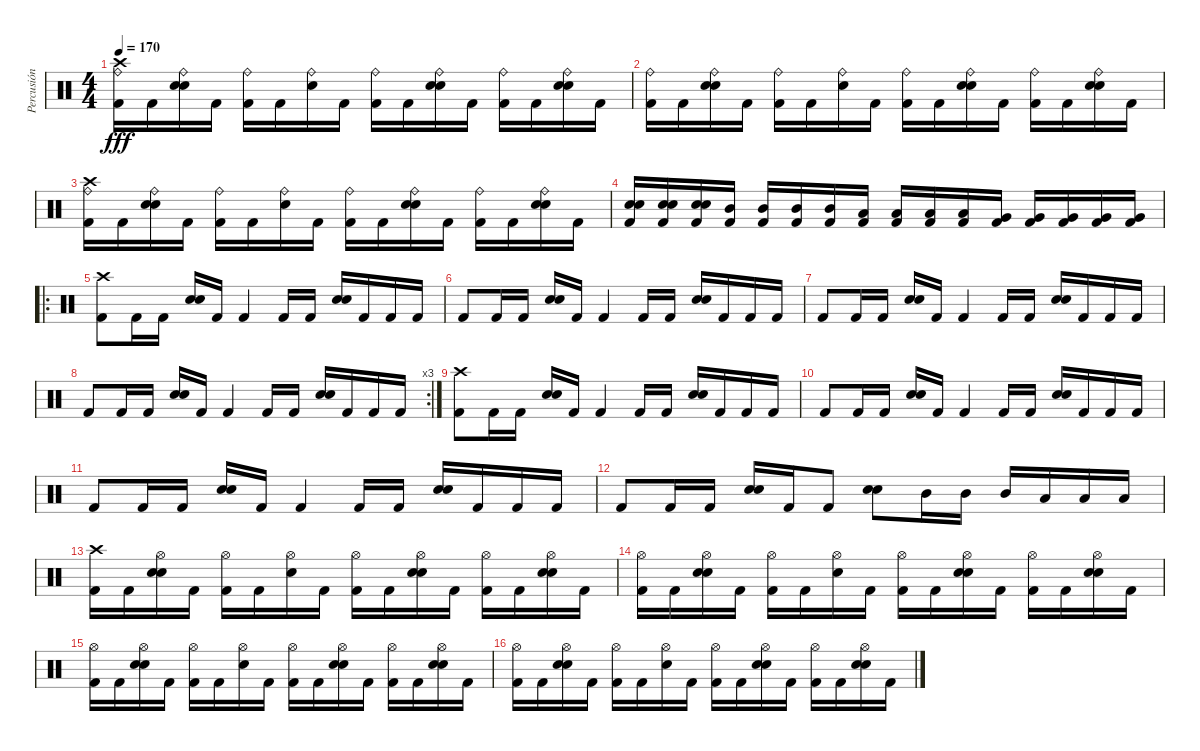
\track ("Percusión" "Percusión") {instrument percussion}
\staff {score}
\articulation defaults
\ts (4 4)
\tempo 170
\clef neutral
\ks c
("Kick (hit) 2" "Ride (bell)" "Crash high (hit)").16{dy fff} "Kick (hit) 2".16 ("Snare (hit) 2" "Electric Snare (hit)" "Ride (bell)").16 "Kick (hit) 2".16 ("Kick (hit) 2" "Ride (bell)").16 "Kick (hit) 2".16 ("Snare (hit) 2" "Ride (bell)").16 "Kick (hit) 2".16 ("Kick (hit) 2" "Ride (bell)").16 "Kick (hit) 2".16 ("Snare (hit) 2" "Electric Snare (hit)" "Ride (bell)").16 "Kick (hit) 2".16 ("Kick (hit) 2" "Ride (bell)").16 "Kick (hit) 2".16 ("Snare (hit) 2" "Electric Snare (hit)" "Ride (bell)").16 "Kick (hit) 2".16 |
("Kick (hit) 2" "Ride (bell)").16 "Kick (hit) 2".16 ("Snare (hit) 2" "Electric Snare (hit)" "Ride (bell)").16 "Kick (hit) 2".16 ("Kick (hit) 2" "Ride (bell)").16 "Kick (hit) 2".16 ("Snare (hit) 2" "Ride (bell)").16 "Kick (hit) 2".16 ("Kick (hit) 2" "Ride (bell)").16 "Kick (hit) 2".16 ("Snare (hit) 2" "Electric Snare (hit)" "Ride (bell)").16 "Kick (hit) 2".16 ("Kick (hit) 2" "Ride (bell)").16 "Kick (hit) 2".16 ("Snare (hit) 2" "Electric Snare (hit)" "Ride (bell)").16 "Kick (hit) 2".16 |
("Kick (hit) 2" "Ride (bell)" "Crash high (hit)").16 "Kick (hit) 2".16 ("Snare (hit) 2" "Electric Snare (hit)" "Ride (bell)").16 "Kick (hit) 2".16 ("Kick (hit) 2" "Ride (bell)").16 "Kick (hit) 2".16 ("Snare (hit) 2" "Ride (bell)").16 "Kick (hit) 2".16 ("Kick (hit) 2" "Ride (bell)").16 "Kick (hit) 2".16 ("Snare (hit) 2" "Electric Snare (hit)" "Ride (bell)").16 "Kick (hit) 2".16 ("Kick (hit) 2" "Ride (bell)").16 "Kick (hit) 2".16 ("Snare (hit) 2" "Electric Snare (hit)" "Ride (bell)").16 "Kick (hit) 2".16 |
("Snare (hit) 2" "Electric Snare (hit)" "Kick (hit) 2").16 ("Snare (hit) 2" "Electric Snare (hit)" "Kick (hit) 2").16 ("Snare (hit) 2" "Electric Snare (hit)" "Kick (hit) 2").16 ("Mid Tom (hit)" "Kick (hit) 2").16 ("Mid Tom (hit)" "Kick (hit) 2").16 ("Mid Tom (hit)" "Kick (hit) 2").16 ("Mid Tom (hit)" "Kick (hit) 2").16 ("Low Tom (hit)" "Kick (hit) 2").16 ("Low Tom (hit)" "Kick (hit) 2").16 ("Low Tom (hit)" "Kick (hit) 2").16 ("Low Tom (hit)" "Kick (hit) 2").16 ("Very Low Tom (hit)" "Kick (hit) 2").16 ("Very Low Tom (hit)" "Kick (hit) 2").16 ("Very Low Tom (hit)" "Kick (hit) 2").16 ("Very Low Tom (hit)" "Kick (hit) 2").16 ("Very Low Tom (hit)" "Kick (hit) 2").16 |
\ro
("Kick (hit) 2" "Crash high (hit)").8 "Kick (hit) 2".16 "Kick (hit) 2".16 ("Snare (hit) 2" "Electric Snare (hit)").16 "Kick (hit) 2".16 "Kick (hit) 2".4 "Kick (hit) 2".16 "Kick (hit) 2".16 ("Snare (hit) 2" "Electric Snare (hit)").16 "Kick (hit) 2".16 "Kick (hit) 2".16 "Kick (hit) 2".16 |
"Kick (hit) 2".8 "Kick (hit) 2".16 "Kick (hit) 2".16 ("Snare (hit) 2" "Electric Snare (hit)").16 "Kick (hit) 2".16 "Kick (hit) 2".4 "Kick (hit) 2".16 "Kick (hit) 2".16 ("Snare (hit) 2" "Electric Snare (hit)").16 "Kick (hit) 2".16 "Kick (hit) 2".16 "Kick (hit) 2".16 |
"Kick (hit) 2".8 "Kick (hit) 2".16 "Kick (hit) 2".16 ("Snare (hit) 2" "Electric Snare (hit)").16 "Kick (hit) 2".16 "Kick (hit) 2".4 "Kick (hit) 2".16 "Kick (hit) 2".16 ("Snare (hit) 2" "Electric Snare (hit)").16 "Kick (hit) 2".16 "Kick (hit) 2".16 "Kick (hit) 2".16 |
\rc 3 "Kick (hit) 2".8 "Kick (hit) 2".16 "Kick (hit) 2".16
("Snare (hit) 2" "Electric Snare (hit)").16 "Kick (hit) 2".16 "Kick (hit) 2".4 "Kick (hit) 2".16 "Kick (hit) 2".16 ("Snare (hit) 2" "Electric Snare (hit)").16 "Kick (hit) 2".16 "Kick (hit) 2".16 "Kick (hit) 2".16 |
("Kick (hit) 2" "Crash high (hit)").8 "Kick (hit) 2".16 "Kick (hit) 2".16 ("Snare (hit) 2" "Electric Snare (hit)").16 "Kick (hit) 2".16 "Kick (hit) 2".4 "Kick (hit) 2".16 "Kick (hit) 2".16 ("Snare (hit) 2" "Electric Snare (hit)").16 "Kick (hit) 2".16 "Kick (hit) 2".16 "Kick (hit) 2".16 |
"Kick (hit) 2".8 "Kick (hit) 2".16 "Kick (hit) 2".16 ("Snare (hit) 2" "Electric Snare (hit)").16 "Kick (hit) 2".16 "Kick (hit) 2".4 "Kick (hit) 2".16 "Kick (hit) 2".16 ("Snare (hit) 2" "Electric Snare (hit)").16 "Kick (hit) 2".16 "Kick (hit) 2".16 "Kick (hit) 2".16 |
"Kick (hit) 2".8 "Kick (hit) 2".16 "Kick (hit) 2".16 ("Snare (hit) 2" "Electric Snare (hit)").16 "Kick (hit) 2".16 "Kick (hit) 2".4 "Kick (hit) 2".16 "Kick (hit) 2".16 ("Snare (hit) 2" "Electric Snare (hit)").16 "Kick (hit) 2".16 "Kick (hit) 2".16 "Kick (hit) 2".16 |
"Kick (hit) 2".8 "Kick (hit) 2".16 "Kick (hit) 2".16 ("Snare (hit) 2" "Electric Snare (hit)").16 "Kick (hit) 2".16 "Kick (hit) 2".8 ("Snare (hit) 2" "Electric Snare (hit)").8 "Mid Tom (hit)".16 "Mid Tom (hit)".16 "Mid Tom (hit)".16 "Low Tom (hit)".16 "Low Tom (hit)".16 "Low Tom (hit)".16 |
("Kick (hit) 2" "Crash high (hit)").16 "Kick (hit) 2".16 ("Snare (hit) 2" "Electric Snare (hit)" "Hi-Hat (open)").16 "Kick (hit) 2".16 ("Kick (hit) 2" "Hi-Hat (open)").16 "Kick (hit) 2".16 ("Snare (hit) 2" "Hi-Hat (open)").16 "Kick (hit) 2".16 ("Kick (hit) 2" "Hi-Hat (open)").16 "Kick (hit) 2".16 ("Snare (hit) 2" "Electric Snare (hit)" "Hi-Hat (open)").16 "Kick (hit) 2".16 ("Kick (hit) 2" "Hi-Hat (open)").16 "Kick (hit) 2".16 ("Snare (hit) 2" "Electric Snare (hit)" "Hi-Hat (open)").16 "Kick (hit) 2".16 |
("Kick (hit) 2" "Hi-Hat (open)").16 "Kick (hit) 2".16 ("Snare (hit) 2" "Electric Snare (hit)" "Hi-Hat (open)").16 "Kick (hit) 2".16 ("Kick (hit) 2" "Hi-Hat (open)").16 "Kick (hit) 2".16 ("Snare (hit) 2" "Hi-Hat (open)").16 "Kick (hit) 2".16 ("Kick (hit) 2" "Hi-Hat (open)").16 "Kick (hit) 2".16 ("Snare (hit) 2" "Electric Snare (hit)" "Hi-Hat (open)").16 "Kick (hit) 2".16 ("Kick (hit) 2" "Hi-Hat (open)").16 "Kick (hit) 2".16 ("Snare (hit) 2" "Electric Snare (hit)" "Hi-Hat (open)").16 "Kick (hit) 2".16 |
("Kick (hit) 2" "Hi-Hat (open)").16 "Kick (hit) 2".16 ("Snare (hit) 2" "Electric Snare (hit)" "Hi-Hat (open)").16 "Kick (hit) 2".16 ("Kick (hit) 2" "Hi-Hat (open)").16 "Kick (hit) 2".16 ("Snare (hit) 2" "Hi-Hat (open)").16 "Kick (hit) 2".16 ("Kick (hit) 2" "Hi-Hat (open)").16 "Kick (hit) 2".16 ("Snare (hit) 2" "Electric Snare (hit)" "Hi-Hat (open)").16 "Kick (hit) 2".16 ("Kick (hit) 2" "Hi-Hat (open)").16 "Kick (hit) 2".16 ("Snare (hit) 2" "Electric Snare (hit)" "Hi-Hat (open)").16 "Kick (hit) 2".16 |
("Kick (hit) 2" "Hi-Hat (open)").16 "Kick (hit) 2".16 ("Snare (hit) 2" "Electric Snare (hit)" "Hi-Hat (open)").16 "Kick (hit) 2".16 ("Kick (hit) 2" "Hi-Hat (open)").16 "Kick (hit) 2".16 ("Snare (hit) 2" "Hi-Hat (open)").16 "Kick (hit) 2".16 ("Kick (hit) 2" "Hi-Hat (open)").16 "Kick (hit) 2".16 ("Snare (hit) 2" "Electric Snare (hit)" "Hi-Hat (open)").16 "Kick (hit) 2".16 ("Kick (hit) 2" "Hi-Hat (open)").16 "Kick (hit) 2".16 ("Snare (hit) 2" "Electric Snare (hit)" "Hi-Hat (open)").16 "Kick (hit) 2".16
